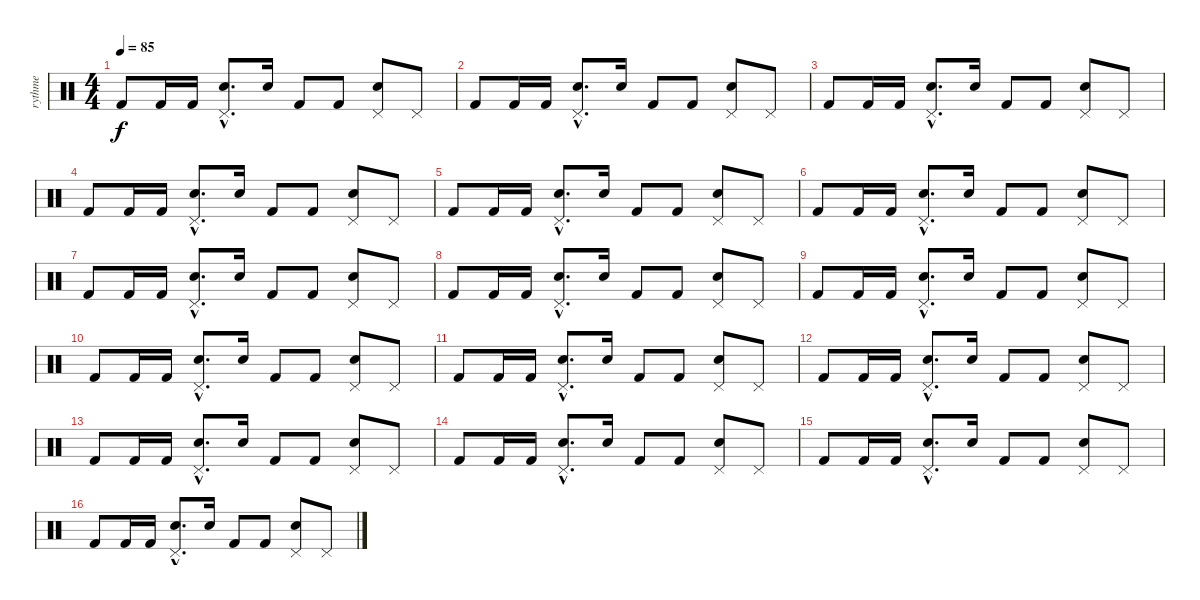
\track ("rythme" "rythme") {instrument percussion}
\staff {score}
\articulation defaults
\ts (4 4)
\tempo 85
\clef neutral
\ks c "Kick (hit) 2".8{dy f} "Kick (hit) 2".16 "Kick (hit) 2".16
("Pedal Hi-Hat (hit)"{hac} "Electric Snare (hit)"{hac}).8{d} "Electric Snare (hit)".16 "Kick (hit) 2".8 "Kick (hit) 2".8 ("Pedal Hi-Hat (hit)" "Electric Snare (hit)").8 "Pedal Hi-Hat (hit)".8 |
"Kick (hit) 2".8 "Kick (hit) 2".16 "Kick (hit) 2".16 ("Pedal Hi-Hat (hit)"{hac} "Electric Snare (hit)"{hac}).8{d} "Electric Snare (hit)".16 "Kick (hit) 2".8 "Kick (hit) 2".8 ("Pedal Hi-Hat (hit)" "Electric Snare (hit)").8 "Pedal Hi-Hat (hit)".8 |
"Kick (hit) 2".8 "Kick (hit) 2".16 "Kick (hit) 2".16 ("Pedal Hi-Hat (hit)"{hac} "Electric Snare (hit)"{hac}).8{d} "Electric Snare (hit)".16 "Kick (hit) 2".8 "Kick (hit) 2".8 ("Pedal Hi-Hat (hit)" "Electric Snare (hit)").8 "Pedal Hi-Hat (hit)".8 |
"Kick (hit) 2".8 "Kick (hit) 2".16 "Kick (hit) 2".16 ("Pedal Hi-Hat (hit)"{hac} "Electric Snare (hit)"{hac}).8{d} "Electric Snare (hit)".16 "Kick (hit) 2".8 "Kick (hit) 2".8 ("Pedal Hi-Hat (hit)" "Electric Snare (hit)").8 "Pedal Hi-Hat (hit)".8 |
"Kick (hit) 2".8 "Kick (hit) 2".16 "Kick (hit) 2".16 ("Pedal Hi-Hat (hit)"{hac} "Electric Snare (hit)"{hac}).8{d} "Electric Snare (hit)".16 "Kick (hit) 2".8 "Kick (hit) 2".8 ("Pedal Hi-Hat (hit)" "Electric Snare (hit)").8 "Pedal Hi-Hat (hit)".8 |
"Kick (hit) 2".8 "Kick (hit) 2".16 "Kick (hit) 2".16 ("Pedal Hi-Hat (hit)"{hac} "Electric Snare (hit)"{hac}).8{d} "Electric Snare (hit)".16 "Kick (hit) 2".8 "Kick (hit) 2".8 ("Pedal Hi-Hat (hit)" "Electric Snare (hit)").8 "Pedal Hi-Hat (hit)".8 |
"Kick (hit) 2".8 "Kick (hit) 2".16 "Kick (hit) 2".16 ("Pedal Hi-Hat (hit)"{hac} "Electric Snare (hit)"{hac}).8{d} "Electric Snare (hit)".16 "Kick (hit) 2".8 "Kick (hit) 2".8 ("Pedal Hi-Hat (hit)" "Electric Snare (hit)").8 "Pedal Hi-Hat (hit)".8 |
"Kick (hit) 2".8 "Kick (hit) 2".16 "Kick (hit) 2".16 ("Pedal Hi-Hat (hit)"{hac} "Electric Snare (hit)"{hac}).8{d} "Electric Snare (hit)".16 "Kick (hit) 2".8 "Kick (hit) 2".8 ("Pedal Hi-Hat (hit)" "Electric Snare (hit)").8 "Pedal Hi-Hat (hit)".8 |
"Kick (hit) 2".8 "Kick (hit) 2".16 "Kick (hit) 2".16 ("Pedal Hi-Hat (hit)"{hac} "Electric Snare (hit)"{hac}).8{d} "Electric Snare (hit)".16 "Kick (hit) 2".8 "Kick (hit) 2".8 ("Pedal Hi-Hat (hit)" "Electric Snare (hit)").8 "Pedal Hi-Hat (hit)".8 |
"Kick (hit) 2".8 "Kick (hit) 2".16 "Kick (hit) 2".16 ("Pedal Hi-Hat (hit)"{hac} "Electric Snare (hit)"{hac}).8{d} "Electric Snare (hit)".16 "Kick (hit) 2".8 "Kick (hit) 2".8 ("Pedal Hi-Hat (hit)" "Electric Snare (hit)").8 "Pedal Hi-Hat (hit)".8 |
"Kick (hit) 2".8 "Kick (hit) 2".16 "Kick (hit) 2".16 ("Pedal Hi-Hat (hit)"{hac} "Electric Snare (hit)"{hac}).8{d} "Electric Snare (hit)".16 "Kick (hit) 2".8 "Kick (hit) 2".8 ("Pedal Hi-Hat (hit)" "Electric Snare (hit)").8 "Pedal Hi-Hat (hit)".8 |
"Kick (hit) 2".8 "Kick (hit) 2".16 "Kick (hit) 2".16 ("Pedal Hi-Hat (hit)"{hac} "Electric Snare (hit)"{hac}).8{d} "Electric Snare (hit)".16 "Kick (hit) 2".8 "Kick (hit) 2".8 ("Pedal Hi-Hat (hit)" "Electric Snare (hit)").8 "Pedal Hi-Hat (hit)".8 |
"Kick (hit) 2".8 "Kick (hit) 2".16 "Kick (hit) 2".16 ("Pedal Hi-Hat (hit)"{hac} "Electric Snare (hit)"{hac}).8{d} "Electric Snare (hit)".16 "Kick (hit) 2".8 "Kick (hit) 2".8 ("Pedal Hi-Hat (hit)" "Electric Snare (hit)").8 "Pedal Hi-Hat (hit)".8 |
"Kick (hit) 2".8 "Kick (hit) 2".16 "Kick (hit) 2".16 ("Pedal Hi-Hat (hit)"{hac} "Electric Snare (hit)"{hac}).8{d} "Electric Snare (hit)".16 "Kick (hit) 2".8 "Kick (hit) 2".8 ("Pedal Hi-Hat (hit)" "Electric Snare (hit)").8 "Pedal Hi-Hat (hit)".8 |
"Kick (hit) 2".8 "Kick (hit) 2".16 "Kick (hit) 2".16 ("Pedal Hi-Hat (hit)"{hac} "Electric Snare (hit)"{hac}).8{d} "Electric Snare (hit)".16 "Kick (hit) 2".8 "Kick (hit) 2".8 ("Pedal Hi-Hat (hit)" "Electric Snare (hit)").8 "Pedal Hi-Hat (hit)".8 |
"Kick (hit) 2".8 "Kick (hit) 2".16 "Kick (hit) 2".16 ("Pedal Hi-Hat (hit)"{hac} "Electric Snare (hit)"{hac}).8{d} "Electric Snare (hit)".16 "Kick (hit) 2".8 "Kick (hit) 2".8 ("Pedal Hi-Hat (hit)" "Electric Snare (hit)").8 "Pedal Hi-Hat (hit)".8
